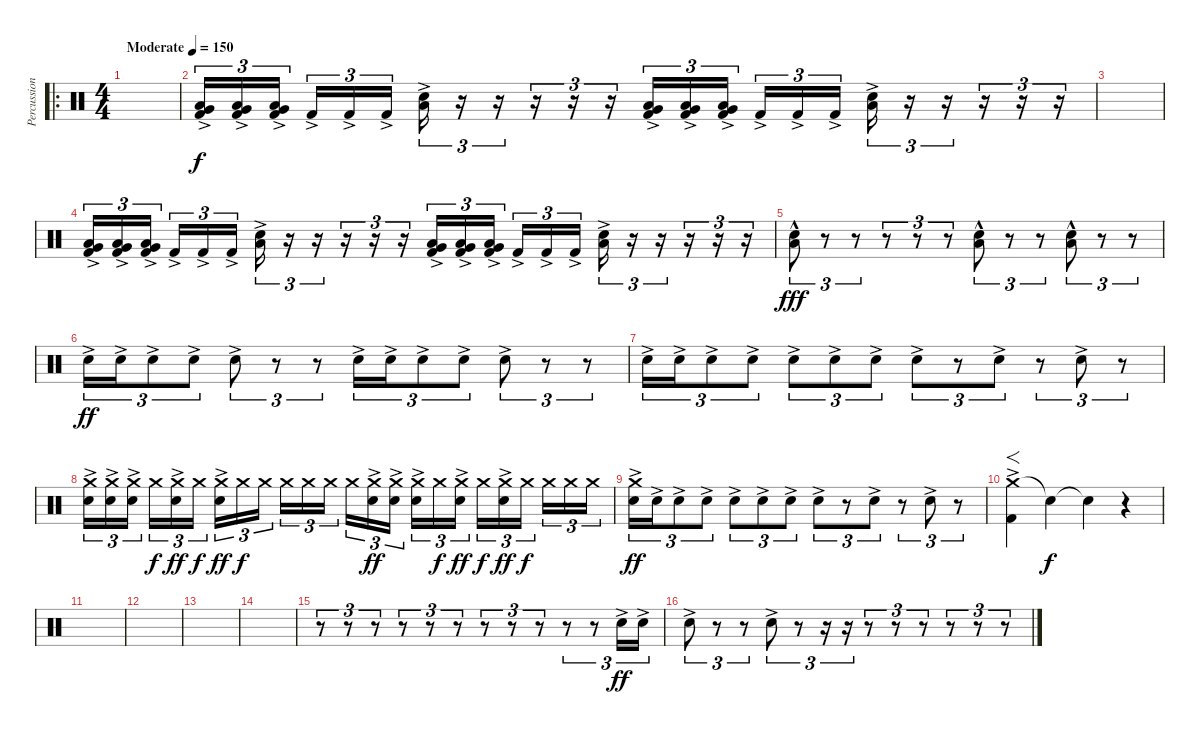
\track ("Percussion" "Percussion") {instrument percussion}
\staff {score}
\articulation defaults
\ro
\ts (4 4)
\tempo (150 "Moderate")
\clef neutral
\ks c
|
("Very Low Tom (hit)"{ac} "Low Floor Tom (hit)"{ac} "Kick (hit) 2"{ac}).16{tu (3 2)} ("Very Low Tom (hit)"{ac} "Low Floor Tom (hit)"{ac} "Kick (hit) 2"{ac}).16{tu (3 2)} ("Very Low Tom (hit)"{ac} "Low Floor Tom (hit)"{ac} "Kick (hit) 2"{ac}).16{tu (3 2) beam splitsecondary} "Kick (hit) 2"{ac}.16{tu (3 2)} "Kick (hit) 2"{ac}.16{tu (3 2)} "Kick (hit) 2"{ac}.16{tu (3 2)} ("Low Floor Tom (hit)"{ac} "Snare (hit) 2"{ac}).16{tu (3 2)} r.16{tu (3 2)} r.16{tu (3 2)} r.16{tu (3 2)} r.16{tu (3 2)} r.16{tu (3 2)} ("Very Low Tom (hit)"{ac} "Low Floor Tom (hit)"{ac} "Kick (hit) 2"{ac}).16{tu (3 2)} ("Very Low Tom (hit)"{ac} "Low Floor Tom (hit)"{ac} "Kick (hit) 2"{ac}).16{tu (3 2)} ("Very Low Tom (hit)"{ac} "Low Floor Tom (hit)"{ac} "Kick (hit) 2"{ac}).16{tu (3 2) beam splitsecondary} "Kick (hit) 2"{ac}.16{tu (3 2)} "Kick (hit) 2"{ac}.16{tu (3 2)} "Kick (hit) 2"{ac}.16{tu (3 2)} ("Low Floor Tom (hit)"{ac} "Snare (hit) 2"{ac}).16{tu (3 2)} r.16{tu (3 2)} r.16{tu (3 2)} r.16{tu (3 2)} r.16{tu (3 2)} r.16{tu (3 2)} |
|
("Very Low Tom (hit)"{ac} "Low Floor Tom (hit)"{ac} "Kick (hit) 2"{ac}).16{tu (3 2)} ("Very Low Tom (hit)"{ac} "Low Floor Tom (hit)"{ac} "Kick (hit) 2"{ac}).16{tu (3 2)} ("Very Low Tom (hit)"{ac} "Low Floor Tom (hit)"{ac} "Kick (hit) 2"{ac}).16{tu (3 2) beam splitsecondary} "Kick (hit) 2"{ac}.16{tu (3 2)} "Kick (hit) 2"{ac}.16{tu (3 2)} "Kick (hit) 2"{ac}.16{tu (3 2)} ("Low Floor Tom (hit)"{ac} "Snare (hit) 2"{ac}).16{tu (3 2)} r.16{tu (3 2)} r.16{tu (3 2)} r.16{tu (3 2)} r.16{tu (3 2)} r.16{tu (3 2)} ("Very Low Tom (hit)"{ac} "Low Floor Tom (hit)"{ac} "Kick (hit) 2"{ac}).16{tu (3 2)} ("Very Low Tom (hit)"{ac} "Low Floor Tom (hit)"{ac} "Kick (hit) 2"{ac}).16{tu (3 2)} ("Very Low Tom (hit)"{ac} "Low Floor Tom (hit)"{ac} "Kick (hit) 2"{ac}).16{tu (3 2) beam splitsecondary} "Kick (hit) 2"{ac}.16{tu (3 2)} "Kick (hit) 2"{ac}.16{tu (3 2)} "Kick (hit) 2"{ac}.16{tu (3 2)} ("Low Floor Tom (hit)"{ac} "Snare (hit) 2"{ac}).16{tu (3 2)} r.16{tu (3 2)} r.16{tu (3 2)} r.16{tu (3 2)} r.16{tu (3 2)} r.16{tu (3 2)} |
("Low Floor Tom (hit)"{hac} "Snare (hit) 2"{hac}).8{tu (3 2) dy fff} r.8{tu (3 2)} r.8{tu (3 2)} r.8{tu (3 2)} r.8{tu (3 2)} r.8{tu (3 2)} ("Low Floor Tom (hit)"{hac} "Snare (hit) 2"{hac}).8{tu (3 2)} r.8{tu (3 2)} r.8{tu (3 2)} ("Low Floor Tom (hit)"{hac} "Snare (hit) 2"{hac}).8{tu (3 2)} r.8{tu (3 2)} r.8{tu (3 2)} |
"Snare (hit) 2"{ac}.16{tu (3 2) dy ff} "Snare (hit) 2"{ac}.16{tu (3 2)} "Snare (hit) 2"{ac}.8{tu (3 2)} "Snare (hit) 2"{ac}.8{tu (3 2)} "Snare (hit) 2"{ac}.8{tu (3 2)} r.8{tu (3 2)} r.8{tu (3 2)} "Snare (hit) 2"{ac}.16{tu (3 2)} "Snare (hit) 2"{ac}.16{tu (3 2)} "Snare (hit) 2"{ac}.8{tu (3 2)} "Snare (hit) 2"{ac}.8{tu (3 2)} "Snare (hit) 2"{ac}.8{tu (3 2)} r.8{tu (3 2)} r.8{tu (3 2)} |
"Snare (hit) 2"{ac}.16{tu (3 2)} "Snare (hit) 2"{ac}.16{tu (3 2)} "Snare (hit) 2"{ac}.8{tu (3 2)} "Snare (hit) 2"{ac}.8{tu (3 2)} "Snare (hit) 2"{ac}.8{tu (3 2)} "Snare (hit) 2"{ac}.8{tu (3 2)} "Snare (hit) 2"{ac}.8{tu (3 2)} "Snare (hit) 2"{ac}.8{tu (3 2)} r.8{tu (3 2)} "Snare (hit) 2"{ac}.8{tu (3 2)} r.8{tu (3 2)} "Snare (hit) 2"{ac}.8{tu (3 2)} r.8{tu (3 2)} |
("Crash medium (hit)" "Snare (hit) 2"{ac}).16{tu (3 2)} ("Crash medium (hit)" "Snare (hit) 2"{ac}).16{tu (3 2)} ("Crash medium (hit)" "Snare (hit) 2"{ac}).16{tu (3 2) beam splitsecondary} "Crash medium (hit)".16{tu (3 2) dy f} ("Crash medium (hit)" "Snare (hit) 2"{ac}).16{tu (3 2) dy ff} "Crash medium (hit)".16{tu (3 2) dy f} ("Crash medium (hit)" "Snare (hit) 2"{ac}).16{tu (3 2) dy ff} "Crash medium (hit)".16{tu (3 2) dy f} "Crash medium (hit)".16{tu (3 2) beam splitsecondary} "Crash medium (hit)".16{tu (3 2)} "Crash medium (hit)".16{tu (3 2)} "Crash medium (hit)".16{tu (3 2)} "Crash medium (hit)".16{tu (3 2)} ("Crash medium (hit)" "Snare (hit) 2"{ac}).16{tu (3 2) dy ff} ("Crash medium (hit)" "Snare (hit) 2"{ac}).16{tu (3 2) beam splitsecondary} ("Crash medium (hit)" "Snare (hit) 2"{ac}).16{tu (3 2)} "Crash medium (hit)".16{tu (3 2) dy f} ("Crash medium (hit)" "Snare (hit) 2"{ac}).16{tu (3 2) dy ff} "Crash medium (hit)".16{tu (3 2) dy f} ("Crash medium (hit)" "Snare (hit) 2"{ac}).16{tu (3 2) dy ff} "Crash medium (hit)".16{tu (3 2) dy f beam splitsecondary} "Crash medium (hit)".16{tu (3 2)} "Crash medium (hit)".16{tu (3 2)} "Crash medium (hit)".16{tu (3 2)} |
("Crash medium (hit)" "Snare (hit) 2"{ac}).16{tu (3 2) dy ff} "Snare (hit) 2"{ac}.16{tu (3 2)} "Snare (hit) 2"{ac}.8{tu (3 2)} "Snare (hit) 2"{ac}.8{tu (3 2)} "Snare (hit) 2"{ac}.8{tu (3 2)} "Snare (hit) 2"{ac}.8{tu (3 2)} "Snare (hit) 2"{ac}.8{tu (3 2)} "Snare (hit) 2"{ac}.8{tu (3 2)} r.8{tu (3 2)} "Snare (hit) 2"{ac}.8{tu (3 2)} r.8{tu (3 2)} "Snare (hit) 2"{ac}.8{tu (3 2)} r.8{tu (3 2)} |
("Crash medium (hit)"{ac} "Kick (hit) 2"{ac}).4{f} "Snare (hit)"{t}.4{dy f} "Snare (hit)"{t}.4 r.4 |
|
|
|
|
r.8{tu (3 2)} r.8{tu (3 2)} r.8{tu (3 2)} r.8{tu (3 2)} r.8{tu (3 2)} r.8{tu (3 2)} r.8{tu (3 2)} r.8{tu (3 2)} r.8{tu (3 2)} r.8{tu (3 2)} r.8{tu (3 2)} "Snare (hit) 2"{ac}.16{tu (3 2) dy ff} "Snare (hit) 2"{ac}.16{tu (3 2)} |
"Snare (hit) 2"{ac}.8{tu (3 2)} r.8{tu (3 2)} r.8{tu (3 2)} "Snare (hit) 2"{ac}.8{tu (3 2)} r.8{tu (3 2)} r.16{tu (3 2)} r.16{tu (3 2)} r.8{tu (3 2)} r.8{tu (3 2)} r.8{tu (3 2)} r.8{tu (3 2)} r.8{tu (3 2)} r.8{tu (3 2)}
